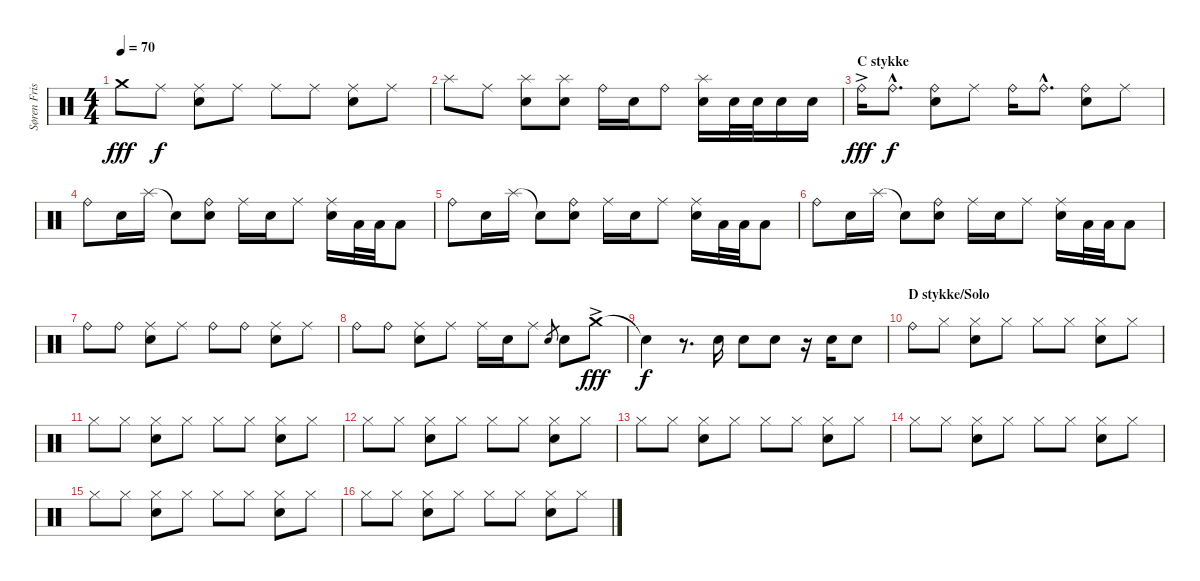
\track ("Søren Fris (Drums)" "Søren Fris") {instrument percussion}
\staff {score}
\articulation defaults
\ts (4 4)
\tempo 70
\clef neutral
\ks c "Crash medium (hit)".8{dy fff} "Ride (middle)".8{dy f}
("Ride (middle)" "Snare (hit) 2").8 "Ride (middle)".8 "Ride (middle)".8 "Ride (middle)".8 ("Ride (middle)" "Snare (hit) 2").8 "Ride (middle)".8 |
"Splash (hit)".8 "Ride (middle)".8 ("Splash (hit)" "Snare (hit) 2").8 ("Splash (hit)" "Snare (hit) 2").8 "Ride (bell)".16 "Snare (hit) 2".16 "Ride (bell)".8 ("Splash (hit)" "Snare (hit) 2").16 "Snare (hit) 2".32 "Snare (hit) 2".32 "Snare (hit) 2".16 "Snare (hit) 2".16 |
\section ("" "C stykke")
"Ride (bell)"{ac}.16{dy fff} "Ride (bell)"{hac}.8{d dy f} ("Ride (bell)" "Snare (hit) 2").8 "Ride (middle)".8 "Ride (bell)".16 "Ride (bell)"{hac}.8{d} ("Ride (bell)" "Snare (hit) 2").8 "Ride (middle)".8 |
"Ride (bell)".8 "Snare (hit) 2".16 "Splash (hit)".16 "Snare (hit)"{t}.8 ("Ride (bell)" "Snare (hit) 2").8 "Ride (middle)".16 "Snare (hit) 2".16 "Ride (middle)".8 ("Ride (middle)" "Snare (hit) 2").16 "Low Tom (hit)".32 "Low Tom (hit)".32 "Low Tom (hit)".8 |
"Ride (bell)".8 "Snare (hit) 2".16 "Splash (hit)".16 "Snare (hit)"{t}.8 ("Ride (bell)" "Snare (hit) 2").8 "Ride (middle)".16 "Snare (hit) 2".16 "Ride (middle)".8 ("Ride (middle)" "Snare (hit) 2").16 "Low Tom (hit)".32 "Low Tom (hit)".32 "Low Tom (hit)".8 |
"Ride (bell)".8 "Snare (hit) 2".16 "Splash (hit)".16 "Snare (hit)"{t}.8 ("Ride (bell)" "Snare (hit) 2").8 "Ride (middle)".16 "Snare (hit) 2".16 "Ride (middle)".8 ("Ride (middle)" "Snare (hit) 2").16 "Low Tom (hit)".32 "Low Tom (hit)".32 "Low Tom (hit)".8 |
"Ride (bell)".8 "Ride (bell)".8 ("Ride (middle)" "Snare (hit) 2").8 "Ride (middle)".8 "Ride (bell)".8 "Ride (bell)".8 ("Ride (middle)" "Snare (hit) 2").8 "Ride (middle)".8 |
"Ride (bell)".8 "Ride (bell)".8 ("Ride (middle)" "Snare (hit) 2").8 "Ride (middle)".8 "Ride (middle)".16 "Snare (hit) 2".16 "Ride (middle)".8 "Snare (hit) 2".8{gr} "Snare (hit) 2".8 "Crash medium (hit)"{ac}.8{dy fff} |
"Snare (hit)"{t}.4{dy f} r.8{d} "Snare (hit) 2".16 "Snare (hit) 2".8 "Electric Snare (hit)".8 r.16 "Snare (hit) 2".16 "Snare (hit) 2".8 |
\section ("" "D stykke/Solo")
"Ride (bell)".8 "Hi-Hat (closed)".8 ("Hi-Hat (closed)" "Snare (hit) 2").8 "Hi-Hat (closed)".8 "Hi-Hat (closed)".8 "Hi-Hat (closed)".8 ("Hi-Hat (closed)" "Snare (hit) 2").8 "Hi-Hat (closed)".8 |
"Hi-Hat (closed)".8 "Hi-Hat (closed)".8 ("Hi-Hat (closed)" "Snare (hit) 2").8 "Hi-Hat (closed)".8 "Hi-Hat (closed)".8 "Hi-Hat (closed)".8 ("Hi-Hat (closed)" "Snare (hit) 2").8 "Hi-Hat (closed)".8 |
"Hi-Hat (closed)".8 "Hi-Hat (closed)".8 ("Hi-Hat (closed)" "Snare (hit) 2").8 "Hi-Hat (closed)".8 "Hi-Hat (closed)".8 "Hi-Hat (closed)".8 ("Hi-Hat (closed)" "Snare (hit) 2").8 "Hi-Hat (closed)".8 |
"Hi-Hat (closed)".8 "Hi-Hat (closed)".8 ("Hi-Hat (closed)" "Snare (hit) 2").8 "Hi-Hat (closed)".8 "Hi-Hat (closed)".8 "Hi-Hat (closed)".8 ("Hi-Hat (closed)" "Snare (hit) 2").8 "Hi-Hat (closed)".8 |
"Hi-Hat (closed)".8 "Hi-Hat (closed)".8 ("Hi-Hat (closed)" "Snare (hit) 2").8 "Hi-Hat (closed)".8 "Hi-Hat (closed)".8 "Hi-Hat (closed)".8 ("Hi-Hat (closed)" "Snare (hit) 2").8 "Hi-Hat (closed)".8 |
"Hi-Hat (closed)".8 "Hi-Hat (closed)".8 ("Hi-Hat (closed)" "Snare (hit) 2").8 "Hi-Hat (closed)".8 "Hi-Hat (closed)".8 "Hi-Hat (closed)".8 ("Hi-Hat (closed)" "Snare (hit) 2").8 "Hi-Hat (closed)".8 |
"Hi-Hat (closed)".8 "Hi-Hat (closed)".8 ("Hi-Hat (closed)" "Snare (hit) 2").8 "Hi-Hat (closed)".8 "Hi-Hat (closed)".8 "Hi-Hat (closed)".8 ("Hi-Hat (closed)" "Snare (hit) 2").8 "Hi-Hat (closed)".8
